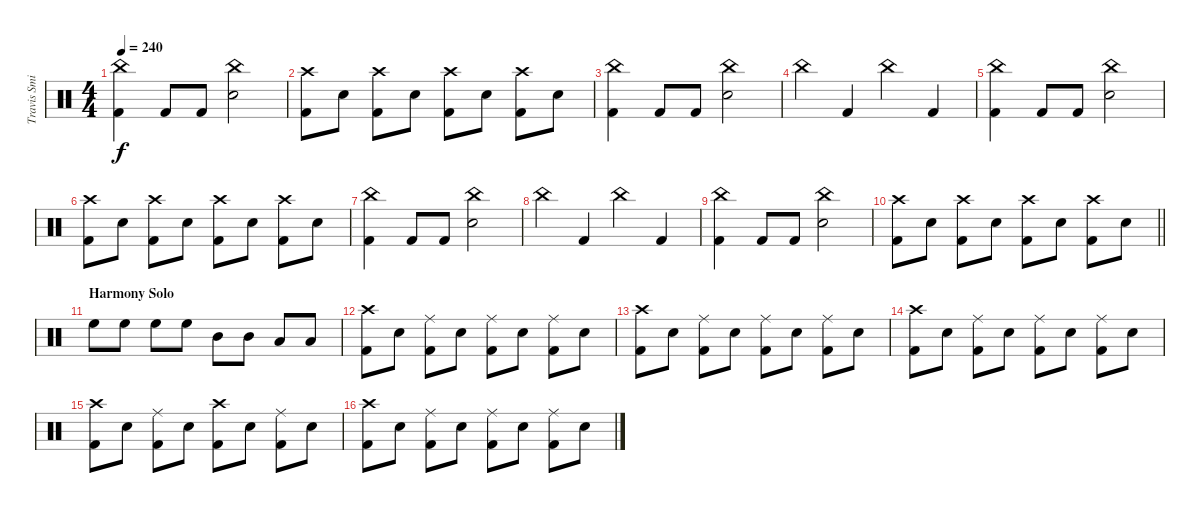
\track ("Travis Smith" "Travis Smi") {instrument percussion}
\staff {score}
\articulation defaults
\ts (4 4)
\tempo 240
\clef neutral
\ks c
("Kick (hit) 2" "China (hit)").4{dy f} "Kick (hit) 2".8 "Kick (hit) 2".8 ("Snare (hit) 2" "China (hit)").2 |
("Kick (hit) 2" "Crash high (hit)").8 "Snare (hit) 2".8 ("Kick (hit) 2" "Crash high (hit)").8 "Snare (hit) 2".8 ("Kick (hit) 2" "Crash high (hit)").8 "Snare (hit) 2".8 ("Kick (hit) 2" "Crash high (hit)").8 "Snare (hit) 2".8 |
("Kick (hit) 2" "China (hit)").4 "Kick (hit) 2".8 "Kick (hit) 2".8 ("Snare (hit) 2" "China (hit)").2 |
"China (hit)".4 "Kick (hit) 2".4 "China (hit)".4 "Kick (hit) 2".4 |
("Kick (hit) 2" "China (hit)").4 "Kick (hit) 2".8 "Kick (hit) 2".8 ("Snare (hit) 2" "China (hit)").2 |
("Kick (hit) 2" "Crash high (hit)").8 "Snare (hit) 2".8 ("Kick (hit) 2" "Crash high (hit)").8 "Snare (hit) 2".8 ("Kick (hit) 2" "Crash high (hit)").8 "Snare (hit) 2".8 ("Kick (hit) 2" "Crash high (hit)").8 "Snare (hit) 2".8 |
("Kick (hit) 2" "China (hit)").4 "Kick (hit) 2".8 "Kick (hit) 2".8 ("Snare (hit) 2" "China (hit)").2 |
"China (hit)".4 "Kick (hit) 2".4 "China (hit)".4 "Kick (hit) 2".4 |
("Kick (hit) 2" "China (hit)").4 "Kick (hit) 2".8 "Kick (hit) 2".8 ("Snare (hit) 2" "China (hit)").2 |
\barLineRight lightlight
("Kick (hit) 2" "Crash high (hit)").8 "Snare (hit) 2".8 ("Kick (hit) 2" "Crash high (hit)").8 "Snare (hit) 2".8 ("Kick (hit) 2" "Crash high (hit)").8 "Snare (hit) 2".8 ("Kick (hit) 2" "Crash high (hit)").8 "Snare (hit) 2".8 |
\section ("" "Harmony Solo")
"High Floor Tom (hit)".8 "High Floor Tom (hit)".8 "High Floor Tom (hit)".8 "High Floor Tom (hit)".8 "Mid Tom (hit)".8 "Mid Tom (hit)".8 "Low Tom (hit)".8 "Low Tom (hit)".8 |
("Kick (hit) 2" "Crash high (hit)").8 "Snare (hit) 2".8 ("Kick (hit) 2" "Ride (middle)").8 "Snare (hit) 2".8 ("Kick (hit) 2" "Ride (middle)").8 "Snare (hit) 2".8 ("Kick (hit) 2" "Ride (middle)").8 "Snare (hit) 2".8 |
("Kick (hit) 2" "Crash high (hit)").8 "Snare (hit) 2".8 ("Kick (hit) 2" "Ride (middle)").8 "Snare (hit) 2".8 ("Kick (hit) 2" "Ride (middle)").8 "Snare (hit) 2".8 ("Kick (hit) 2" "Ride (middle)").8 "Snare (hit) 2".8 |
("Kick (hit) 2" "Crash high (hit)").8 "Snare (hit) 2".8 ("Kick (hit) 2" "Ride (middle)").8 "Snare (hit) 2".8 ("Kick (hit) 2" "Ride (middle)").8 "Snare (hit) 2".8 ("Kick (hit) 2" "Ride (middle)").8 "Snare (hit) 2".8 |
("Kick (hit) 2" "Crash high (hit)").8 "Snare (hit) 2".8 ("Kick (hit) 2" "Ride (middle)").8 "Snare (hit) 2".8 ("Kick (hit) 2" "Crash high (hit)").8 "Snare (hit) 2".8 ("Kick (hit) 2" "Ride (middle)").8 "Snare (hit) 2".8 |
("Kick (hit) 2" "Crash high (hit)").8 "Snare (hit) 2".8 ("Kick (hit) 2" "Ride (middle)").8 "Snare (hit) 2".8 ("Kick (hit) 2" "Ride (middle)").8 "Snare (hit) 2".8 ("Kick (hit) 2" "Ride (middle)").8 "Snare (hit) 2".8
